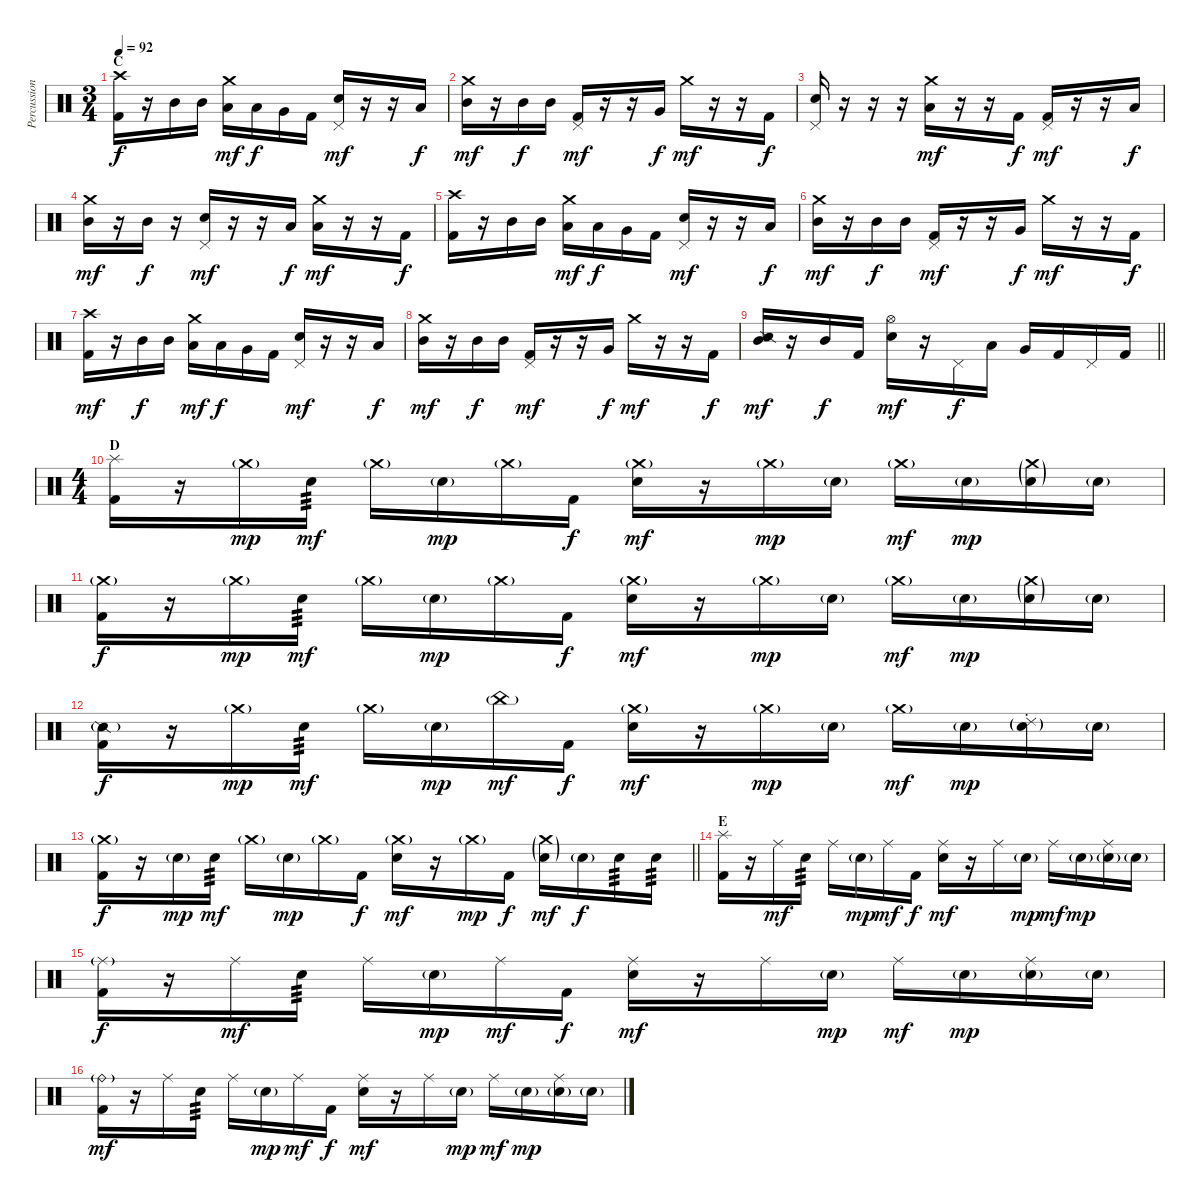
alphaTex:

\track ("Percussion" "Percussion") {instrument percussion}
\staff {score}
\articulation defaults
\ts (3 4)
\section ("" "C")
\tempo 92
\clef neutral
\ks c
("Crash high (hit)" "Kick (hit) 2").16{dy f} r.16 "Mid Tom (hit)".16 "Mid Tom (hit)".16 ("Crash medium (hit)" "Low Tom (hit)").16{dy mf} "Low Tom (hit)".16{dy f} "Very Low Tom (hit)".16 "Kick (hit) 2".16 ("Pedal Hi-Hat (hit)" "Snare (hit) 2").16{dy mf} r.16 r.16 "Low Tom (hit)".16{dy f} |
("Crash medium (hit)" "Mid Tom (hit)").16{dy mf} r.16 "Mid Tom (hit)".16{dy f} "Mid Tom (hit)".16 ("Pedal Hi-Hat (hit)" "Kick (hit) 2").16{dy mf} r.16 r.16 "Very Low Tom (hit)".16{dy f} "Crash medium (hit)".16{dy mf} r.16 r.16 "Kick (hit) 2".16{dy f} |
("Pedal Hi-Hat (hit)" "Snare (hit) 2").16 r.16 r.16 r.16 ("Crash medium (hit)" "Low Tom (hit)").16{dy mf} r.16 r.16 "Kick (hit) 2".16{dy f} ("Pedal Hi-Hat (hit)" "Kick (hit) 2").16{dy mf} r.16 r.16 "Low Tom (hit)".16{dy f} |
("Crash medium (hit)" "Mid Tom (hit)").16{dy mf} r.16 "Mid Tom (hit)".16{dy f} r.16 ("Pedal Hi-Hat (hit)" "Snare (hit) 2").16{dy mf} r.16 r.16 "Low Tom (hit)".16{dy f} ("Crash medium (hit)" "Low Tom (hit)").16{dy mf} r.16 r.16 "Kick (hit) 2".16{dy f} |
("Crash high (hit)" "Kick (hit) 2").16 r.16 "Mid Tom (hit)".16 "Mid Tom (hit)".16 ("Crash medium (hit)" "Low Tom (hit)").16{dy mf} "Low Tom (hit)".16{dy f} "Very Low Tom (hit)".16 "Kick (hit) 2".16 ("Pedal Hi-Hat (hit)" "Snare (hit) 2").16{dy mf} r.16 r.16 "Low Tom (hit)".16{dy f} |
("Crash medium (hit)" "Mid Tom (hit)").16{dy mf} r.16 "Mid Tom (hit)".16{dy f} "Mid Tom (hit)".16 ("Pedal Hi-Hat (hit)" "Kick (hit) 2").16{dy mf} r.16 r.16 "Very Low Tom (hit)".16{dy f} "Crash medium (hit)".16{dy mf} r.16 r.16 "Kick (hit) 2".16{dy f} |
("Crash high (hit)" "Kick (hit) 2").16{dy mf} r.16 "Mid Tom (hit)".16{dy f} "Mid Tom (hit)".16 ("Crash medium (hit)" "Low Tom (hit)").16{dy mf} "Low Tom (hit)".16{dy f} "Very Low Tom (hit)".16 "Kick (hit) 2".16 ("Pedal Hi-Hat (hit)" "Snare (hit) 2").16{dy mf} r.16 r.16 "Low Tom (hit)".16{dy f} |
("Crash medium (hit)" "Mid Tom (hit)").16{dy mf} r.16 "Mid Tom (hit)".16{dy f} "Mid Tom (hit)".16 ("Pedal Hi-Hat (hit)" "Kick (hit) 2").16{dy mf} r.16 r.16 "Very Low Tom (hit)".16{dy f} "Crash medium (hit)".16{dy mf} r.16 r.16 "Kick (hit) 2".16{dy f} |
\barLineRight lightlight
("Snare (side stick) 2" "Mid Tom (hit)").16{dy mf} r.16 "Mid Tom (hit)".16{dy f} "Kick (hit) 2".16 ("Hi-Hat (open)" "Snare (hit) 2").16{dy mf} r.16 "Pedal Hi-Hat (hit)".16{dy f} "Low Tom (hit)".16 "Very Low Tom (hit)".16 "Kick (hit) 2".16 "Pedal Hi-Hat (hit)".16 "Kick (hit) 2".16 |
\ts (4 4)
\section ("" "D")
("Splash (hit)" "Kick (hit) 2").16 r.16 "Crash medium (hit)"{g}.16{dy mp} "Snare (hit) 2".16{tp 3 dy mf} "Crash medium (hit)"{g}.16 "Snare (hit) 2"{g}.16{dy mp} "Crash medium (hit)"{g}.16 "Kick (hit) 2".16{dy f} ("Crash medium (hit)"{g} "Snare (hit) 2").16{dy mf} r.16 "Crash medium (hit)"{g}.16{dy mp} "Snare (hit) 2"{g}.16 "Crash medium (hit)"{g}.16{dy mf} "Snare (hit) 2"{g}.16{dy mp} ("Crash medium (hit)"{g} "Snare (hit) 2"{g}).16 "Snare (hit) 2"{g}.16 |
("Crash medium (hit)"{g} "Kick (hit) 2").16{dy f} r.16 "Crash medium (hit)"{g}.16{dy mp} "Snare (hit) 2".16{tp 3 dy mf} "Crash medium (hit)"{g}.16 "Snare (hit) 2"{g}.16{dy mp} "Crash medium (hit)"{g}.16 "Kick (hit) 2".16{dy f} ("Crash medium (hit)"{g} "Snare (hit) 2").16{dy mf} r.16 "Crash medium (hit)"{g}.16{dy mp} "Snare (hit) 2"{g}.16 "Crash medium (hit)"{g}.16{dy mf} "Snare (hit) 2"{g}.16{dy mp} ("Crash medium (hit)"{g} "Snare (hit) 2"{g}).16 "Snare (hit) 2"{g}.16 |
("Snare (side stick) 2"{g} "Kick (hit) 2").16{dy f} r.16 "Crash medium (hit)"{g}.16{dy mp} "Snare (hit) 2".16{tp 3 dy mf} "Crash medium (hit)"{g}.16 "Snare (hit) 2"{g}.16{dy mp} "China (hit)"{g}.16{dy mf} "Kick (hit) 2".16{dy f} ("Crash medium (hit)"{g} "Snare (hit) 2").16{dy mf} r.16 "Crash medium (hit)"{g}.16{dy mp} "Snare (hit) 2"{g}.16 "Crash medium (hit)"{g}.16{dy mf} "Snare (hit) 2"{g}.16{dy mp} ("Ride (choke) 2"{g} "Snare (hit) 2"{g}).16 "Snare (hit) 2"{g}.16 |
\barLineRight lightlight
("Crash medium (hit)"{g} "Kick (hit) 2").16{dy f} r.16 "Snare (hit)"{g}.16{dy mp} "Snare (hit) 2".16{tp 3 dy mf} "Crash medium (hit)"{g}.16 "Snare (hit) 2"{g}.16{dy mp} "Crash medium (hit)"{g}.16 "Kick (hit) 2".16{dy f} ("Crash medium (hit)"{g} "Snare (hit) 2").16{dy mf} r.16 "Crash medium (hit)"{g}.16{dy mp} "Kick (hit) 2".16{dy f} ("Crash medium (hit)"{g} "Snare (hit) 2"{g}).16{dy mf} "Snare (hit) 2"{g}.16{dy f} "Snare (hit) 2".16{tp 3} "Snare (hit) 2".16{tp 3} |
\section ("" "E")
("Splash (hit)" "Kick (hit) 2").16 r.16 "Ride (middle)".16{dy mf} "Snare (hit) 2".16{tp 3} "Ride (middle)".16 "Snare (hit) 2"{g}.16{dy mp} "Ride (middle)".16{dy mf} "Kick (hit) 2".16{dy f} ("Ride (middle)" "Snare (hit) 2").16{dy mf} r.16 "Ride (middle)".16 "Snare (hit) 2"{g}.16{dy mp} "Ride (middle)".16{dy mf} "Snare (hit) 2"{g}.16{dy mp} ("Ride (middle)" "Snare (hit) 2"{g}).16 "Snare (hit) 2"{g}.16 |
("Ride (middle)"{g} "Kick (hit) 2").16{dy f} r.16 "Ride (middle)".16{dy mf} "Snare (hit) 2".16{tp 3} "Ride (middle)".16 "Snare (hit) 2"{g}.16{dy mp} "Ride (middle)".16{dy mf} "Kick (hit) 2".16{dy f} ("Ride (middle)" "Snare (hit) 2").16{dy mf} r.16 "Ride (middle)".16 "Snare (hit) 2"{g}.16{dy mp} "Ride (middle)".16{dy mf} "Snare (hit) 2"{g}.16{dy mp} ("Ride (middle)" "Snare (hit) 2"{g}).16 "Snare (hit) 2"{g}.16 |
("Ride (bell)"{g} "Kick (hit) 2").16{dy mf} r.16 "Ride (middle)".16 "Snare (hit) 2".16{tp 3} "Ride (middle)".16 "Snare (hit) 2"{g}.16{dy mp} "Ride (middle)".16{dy mf} "Kick (hit) 2".16{dy f} ("Ride (middle)" "Snare (hit) 2").16{dy mf} r.16 "Ride (middle)".16 "Snare (hit) 2"{g}.16{dy mp} "Ride (middle)".16{dy mf} "Snare (hit) 2"{g}.16{dy mp} ("Ride (middle)" "Snare (hit) 2"{g}).16 "Snare (hit) 2"{g}.16
